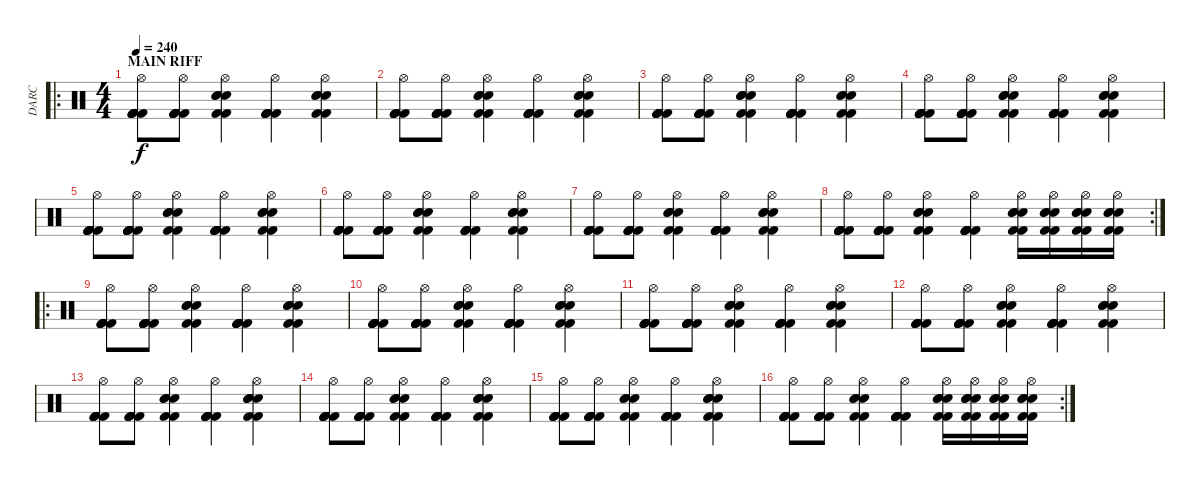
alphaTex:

\track ("DARC" "DARC") {instrument percussion}
\staff {score}
\articulation defaults
\ro
\ts (4 4)
\section ("" "MAIN RIFF")
\tempo 240
\clef neutral
\ks c
("Hi-Hat (open)" "Kick (hit) 2" "Kick (hit) 2" "Kick (hit) 2" "Kick (hit) 2" "Kick (hit) 2").8{dy f} ("Hi-Hat (open)" "Kick (hit) 2" "Kick (hit) 2" "Kick (hit) 2" "Kick (hit) 2" "Kick (hit) 2").8 ("Hi-Hat (open)" "Electric Snare (hit)" "Electric Snare (hit)" "Kick (hit) 2" "Kick (hit) 2" "Electric Snare (hit)").4 ("Hi-Hat (open)" "Kick (hit) 2" "Kick (hit) 2" "Kick (hit) 2" "Kick (hit) 2" "Kick (hit) 2").4 ("Hi-Hat (open)" "Electric Snare (hit)" "Electric Snare (hit)" "Kick (hit) 2" "Kick (hit) 2" "Electric Snare (hit)").4 |
("Hi-Hat (open)" "Kick (hit) 2" "Kick (hit) 2" "Kick (hit) 2" "Kick (hit) 2" "Kick (hit) 2").8 ("Hi-Hat (open)" "Kick (hit) 2" "Kick (hit) 2" "Kick (hit) 2" "Kick (hit) 2" "Kick (hit) 2").8 ("Hi-Hat (open)" "Electric Snare (hit)" "Electric Snare (hit)" "Kick (hit) 2" "Kick (hit) 2" "Electric Snare (hit)").4 ("Hi-Hat (open)" "Kick (hit) 2" "Kick (hit) 2" "Kick (hit) 2" "Kick (hit) 2" "Kick (hit) 2").4 ("Hi-Hat (open)" "Electric Snare (hit)" "Electric Snare (hit)" "Kick (hit) 2" "Kick (hit) 2" "Electric Snare (hit)").4 |
("Hi-Hat (open)" "Kick (hit) 2" "Kick (hit) 2" "Kick (hit) 2" "Kick (hit) 2" "Kick (hit) 2").8 ("Hi-Hat (open)" "Kick (hit) 2" "Kick (hit) 2" "Kick (hit) 2" "Kick (hit) 2" "Kick (hit) 2").8 ("Hi-Hat (open)" "Electric Snare (hit)" "Electric Snare (hit)" "Kick (hit) 2" "Kick (hit) 2" "Electric Snare (hit)").4 ("Hi-Hat (open)" "Kick (hit) 2" "Kick (hit) 2" "Kick (hit) 2" "Kick (hit) 2" "Kick (hit) 2").4 ("Hi-Hat (open)" "Electric Snare (hit)" "Electric Snare (hit)" "Kick (hit) 2" "Kick (hit) 2" "Electric Snare (hit)").4 |
("Hi-Hat (open)" "Kick (hit) 2" "Kick (hit) 2" "Kick (hit) 2" "Kick (hit) 2" "Kick (hit) 2").8 ("Hi-Hat (open)" "Kick (hit) 2" "Kick (hit) 2" "Kick (hit) 2" "Kick (hit) 2" "Kick (hit) 2").8 ("Hi-Hat (open)" "Electric Snare (hit)" "Electric Snare (hit)" "Kick (hit) 2" "Kick (hit) 2" "Electric Snare (hit)").4 ("Hi-Hat (open)" "Kick (hit) 2" "Kick (hit) 2" "Kick (hit) 2" "Kick (hit) 2" "Kick (hit) 2").4 ("Hi-Hat (open)" "Electric Snare (hit)" "Electric Snare (hit)" "Kick (hit) 2" "Kick (hit) 2" "Electric Snare (hit)").4 |
("Hi-Hat (open)" "Kick (hit) 2" "Kick (hit) 2" "Kick (hit) 2" "Kick (hit) 2" "Kick (hit) 2").8 ("Hi-Hat (open)" "Kick (hit) 2" "Kick (hit) 2" "Kick (hit) 2" "Kick (hit) 2" "Kick (hit) 2").8 ("Hi-Hat (open)" "Electric Snare (hit)" "Electric Snare (hit)" "Kick (hit) 2" "Kick (hit) 2" "Electric Snare (hit)").4 ("Hi-Hat (open)" "Kick (hit) 2" "Kick (hit) 2" "Kick (hit) 2" "Kick (hit) 2" "Kick (hit) 2").4 ("Hi-Hat (open)" "Electric Snare (hit)" "Electric Snare (hit)" "Kick (hit) 2" "Kick (hit) 2" "Electric Snare (hit)").4 |
("Hi-Hat (open)" "Kick (hit) 2" "Kick (hit) 2" "Kick (hit) 2" "Kick (hit) 2" "Kick (hit) 2").8 ("Hi-Hat (open)" "Kick (hit) 2" "Kick (hit) 2" "Kick (hit) 2" "Kick (hit) 2" "Kick (hit) 2").8 ("Hi-Hat (open)" "Electric Snare (hit)" "Electric Snare (hit)" "Kick (hit) 2" "Kick (hit) 2" "Electric Snare (hit)").4 ("Hi-Hat (open)" "Kick (hit) 2" "Kick (hit) 2" "Kick (hit) 2" "Kick (hit) 2" "Kick (hit) 2").4 ("Hi-Hat (open)" "Electric Snare (hit)" "Electric Snare (hit)" "Kick (hit) 2" "Kick (hit) 2" "Electric Snare (hit)").4 |
("Hi-Hat (open)" "Kick (hit) 2" "Kick (hit) 2" "Kick (hit) 2" "Kick (hit) 2" "Kick (hit) 2").8 ("Hi-Hat (open)" "Kick (hit) 2" "Kick (hit) 2" "Kick (hit) 2" "Kick (hit) 2" "Kick (hit) 2").8 ("Hi-Hat (open)" "Electric Snare (hit)" "Electric Snare (hit)" "Kick (hit) 2" "Kick (hit) 2" "Electric Snare (hit)").4 ("Hi-Hat (open)" "Kick (hit) 2" "Kick (hit) 2" "Kick (hit) 2" "Kick (hit) 2" "Kick (hit) 2").4 ("Hi-Hat (open)" "Electric Snare (hit)" "Electric Snare (hit)" "Kick (hit) 2" "Kick (hit) 2" "Electric Snare (hit)").4 |
\rc 2
("Hi-Hat (open)" "Kick (hit) 2" "Kick (hit) 2" "Kick (hit) 2" "Kick (hit) 2" "Kick (hit) 2").8 ("Hi-Hat (open)" "Kick (hit) 2" "Kick (hit) 2" "Kick (hit) 2" "Kick (hit) 2" "Kick (hit) 2").8 ("Hi-Hat (open)" "Electric Snare (hit)" "Electric Snare (hit)" "Kick (hit) 2" "Kick (hit) 2" "Electric Snare (hit)").4 ("Hi-Hat (open)" "Kick (hit) 2" "Kick (hit) 2" "Kick (hit) 2" "Kick (hit) 2" "Kick (hit) 2").4 ("Hi-Hat (open)" "Electric Snare (hit)" "Electric Snare (hit)" "Kick (hit) 2" "Kick (hit) 2" "Electric Snare (hit)").16 ("Hi-Hat (open)" "Electric Snare (hit)" "Electric Snare (hit)" "Kick (hit) 2" "Kick (hit) 2" "Electric Snare (hit)").16 ("Hi-Hat (open)" "Electric Snare (hit)" "Electric Snare (hit)" "Kick (hit) 2" "Kick (hit) 2" "Electric Snare (hit)").16 ("Hi-Hat (open)" "Electric Snare (hit)" "Electric Snare (hit)" "Kick (hit) 2" "Kick (hit) 2" "Electric Snare (hit)").16 |
\ro
("Hi-Hat (open)" "Kick (hit) 2" "Kick (hit) 2" "Kick (hit) 2" "Kick (hit) 2" "Kick (hit) 2").8 ("Hi-Hat (open)" "Kick (hit) 2" "Kick (hit) 2" "Kick (hit) 2" "Kick (hit) 2" "Kick (hit) 2").8 ("Hi-Hat (open)" "Electric Snare (hit)" "Electric Snare (hit)" "Kick (hit) 2" "Kick (hit) 2" "Electric Snare (hit)").4 ("Hi-Hat (open)" "Kick (hit) 2" "Kick (hit) 2" "Kick (hit) 2" "Kick (hit) 2" "Kick (hit) 2").4 ("Hi-Hat (open)" "Electric Snare (hit)" "Electric Snare (hit)" "Kick (hit) 2" "Kick (hit) 2" "Electric Snare (hit)").4 |
("Hi-Hat (open)" "Kick (hit) 2" "Kick (hit) 2" "Kick (hit) 2" "Kick (hit) 2" "Kick (hit) 2").8 ("Hi-Hat (open)" "Kick (hit) 2" "Kick (hit) 2" "Kick (hit) 2" "Kick (hit) 2" "Kick (hit) 2").8 ("Hi-Hat (open)" "Electric Snare (hit)" "Electric Snare (hit)" "Kick (hit) 2" "Kick (hit) 2" "Electric Snare (hit)").4 ("Hi-Hat (open)" "Kick (hit) 2" "Kick (hit) 2" "Kick (hit) 2" "Kick (hit) 2" "Kick (hit) 2").4 ("Hi-Hat (open)" "Electric Snare (hit)" "Electric Snare (hit)" "Kick (hit) 2" "Kick (hit) 2" "Electric Snare (hit)").4 |
("Hi-Hat (open)" "Kick (hit) 2" "Kick (hit) 2" "Kick (hit) 2" "Kick (hit) 2" "Kick (hit) 2").8 ("Hi-Hat (open)" "Kick (hit) 2" "Kick (hit) 2" "Kick (hit) 2" "Kick (hit) 2" "Kick (hit) 2").8 ("Hi-Hat (open)" "Electric Snare (hit)" "Electric Snare (hit)" "Kick (hit) 2" "Kick (hit) 2" "Electric Snare (hit)").4 ("Hi-Hat (open)" "Kick (hit) 2" "Kick (hit) 2" "Kick (hit) 2" "Kick (hit) 2" "Kick (hit) 2").4 ("Hi-Hat (open)" "Electric Snare (hit)" "Electric Snare (hit)" "Kick (hit) 2" "Kick (hit) 2" "Electric Snare (hit)").4 |
("Hi-Hat (open)" "Kick (hit) 2" "Kick (hit) 2" "Kick (hit) 2" "Kick (hit) 2" "Kick (hit) 2").8 ("Hi-Hat (open)" "Kick (hit) 2" "Kick (hit) 2" "Kick (hit) 2" "Kick (hit) 2" "Kick (hit) 2").8 ("Hi-Hat (open)" "Electric Snare (hit)" "Electric Snare (hit)" "Kick (hit) 2" "Kick (hit) 2" "Electric Snare (hit)").4 ("Hi-Hat (open)" "Kick (hit) 2" "Kick (hit) 2" "Kick (hit) 2" "Kick (hit) 2" "Kick (hit) 2").4 ("Hi-Hat (open)" "Electric Snare (hit)" "Electric Snare (hit)" "Kick (hit) 2" "Kick (hit) 2" "Electric Snare (hit)").4 |
("Hi-Hat (open)" "Kick (hit) 2" "Kick (hit) 2" "Kick (hit) 2" "Kick (hit) 2" "Kick (hit) 2").8 ("Hi-Hat (open)" "Kick (hit) 2" "Kick (hit) 2" "Kick (hit) 2" "Kick (hit) 2" "Kick (hit) 2").8 ("Hi-Hat (open)" "Electric Snare (hit)" "Electric Snare (hit)" "Kick (hit) 2" "Kick (hit) 2" "Electric Snare (hit)").4 ("Hi-Hat (open)" "Kick (hit) 2" "Kick (hit) 2" "Kick (hit) 2" "Kick (hit) 2" "Kick (hit) 2").4 ("Hi-Hat (open)" "Electric Snare (hit)" "Electric Snare (hit)" "Kick (hit) 2" "Kick (hit) 2" "Electric Snare (hit)").4 |
("Hi-Hat (open)" "Kick (hit) 2" "Kick (hit) 2" "Kick (hit) 2" "Kick (hit) 2" "Kick (hit) 2").8 ("Hi-Hat (open)" "Kick (hit) 2" "Kick (hit) 2" "Kick (hit) 2" "Kick (hit) 2" "Kick (hit) 2").8 ("Hi-Hat (open)" "Electric Snare (hit)" "Electric Snare (hit)" "Kick (hit) 2" "Kick (hit) 2" "Electric Snare (hit)").4 ("Hi-Hat (open)" "Kick (hit) 2" "Kick (hit) 2" "Kick (hit) 2" "Kick (hit) 2" "Kick (hit) 2").4 ("Hi-Hat (open)" "Electric Snare (hit)" "Electric Snare (hit)" "Kick (hit) 2" "Kick (hit) 2" "Electric Snare (hit)").4 |
("Hi-Hat (open)" "Kick (hit) 2" "Kick (hit) 2" "Kick (hit) 2" "Kick (hit) 2" "Kick (hit) 2").8 ("Hi-Hat (open)" "Kick (hit) 2" "Kick (hit) 2" "Kick (hit) 2" "Kick (hit) 2" "Kick (hit) 2").8 ("Hi-Hat (open)" "Electric Snare (hit)" "Electric Snare (hit)" "Kick (hit) 2" "Kick (hit) 2" "Electric Snare (hit)").4 ("Hi-Hat (open)" "Kick (hit) 2" "Kick (hit) 2" "Kick (hit) 2" "Kick (hit) 2" "Kick (hit) 2").4 ("Hi-Hat (open)" "Electric Snare (hit)" "Electric Snare (hit)" "Kick (hit) 2" "Kick (hit) 2" "Electric Snare (hit)").4 |
\rc 2
("Hi-Hat (open)" "Kick (hit) 2" "Kick (hit) 2" "Kick (hit) 2" "Kick (hit) 2" "Kick (hit) 2").8 ("Hi-Hat (open)" "Kick (hit) 2" "Kick (hit) 2" "Kick (hit) 2" "Kick (hit) 2" "Kick (hit) 2").8 ("Hi-Hat (open)" "Electric Snare (hit)" "Electric Snare (hit)" "Kick (hit) 2" "Kick (hit) 2" "Electric Snare (hit)").4 ("Hi-Hat (open)" "Kick (hit) 2" "Kick (hit) 2" "Kick (hit) 2" "Kick (hit) 2" "Kick (hit) 2").4 ("Hi-Hat (open)" "Electric Snare (hit)" "Electric Snare (hit)" "Kick (hit) 2" "Kick (hit) 2" "Electric Snare (hit)").16 ("Hi-Hat (open)" "Electric Snare (hit)" "Electric Snare (hit)" "Kick (hit) 2" "Kick (hit) 2" "Electric Snare (hit)").16 ("Hi-Hat (open)" "Electric Snare (hit)" "Electric Snare (hit)" "Kick (hit) 2" "Kick (hit) 2" "Electric Snare (hit)").16 ("Hi-Hat (open)" "Electric Snare (hit)" "Electric Snare (hit)" "Kick (hit) 2" "Kick (hit) 2" "Electric Snare (hit)").16
